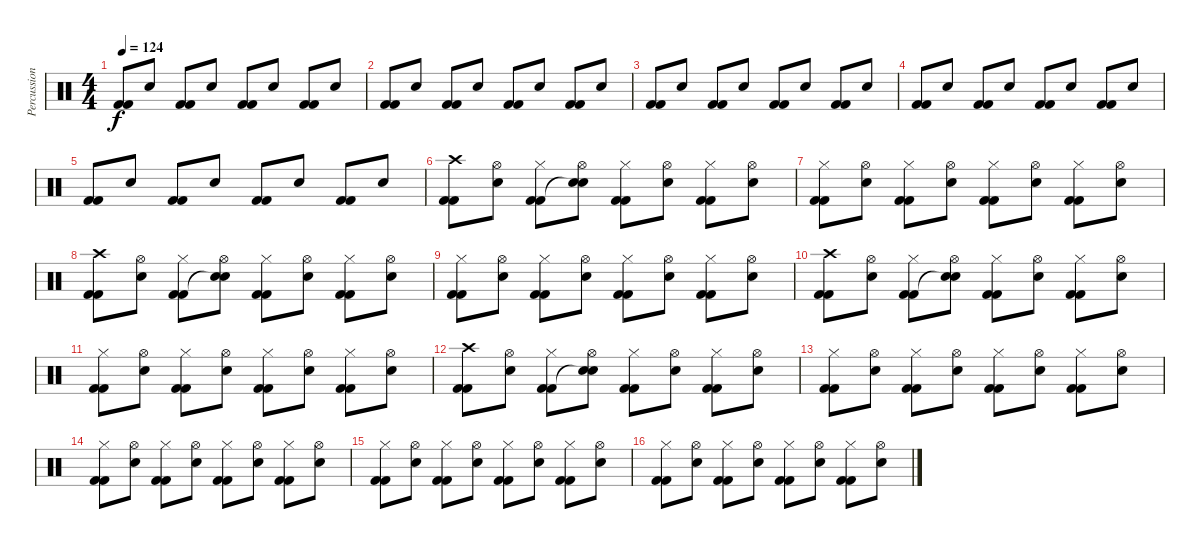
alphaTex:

\track ("Percussions" "Percussion") {instrument percussion}
\staff {score}
\articulation defaults
\ts (4 4)
\tempo 124
\clef neutral
\ks c
("Kick (hit) 2" "Kick (hit) 2").8{dy f} "Hand Clap (hit)".8 ("Kick (hit) 2" "Kick (hit) 2").8 "Hand Clap (hit)".8 ("Kick (hit) 2" "Kick (hit) 2").8 "Hand Clap (hit)".8 ("Kick (hit) 2" "Kick (hit) 2").8 "Hand Clap (hit)".8 |
("Kick (hit) 2" "Kick (hit) 2").8 "Hand Clap (hit)".8 ("Kick (hit) 2" "Kick (hit) 2").8 "Hand Clap (hit)".8 ("Kick (hit) 2" "Kick (hit) 2").8 "Hand Clap (hit)".8 ("Kick (hit) 2" "Kick (hit) 2").8 "Hand Clap (hit)".8 |
("Kick (hit) 2" "Kick (hit) 2").8 "Hand Clap (hit)".8 ("Kick (hit) 2" "Kick (hit) 2").8 "Hand Clap (hit)".8 ("Kick (hit) 2" "Kick (hit) 2").8 "Hand Clap (hit)".8 ("Kick (hit) 2" "Kick (hit) 2").8 "Hand Clap (hit)".8 |
("Kick (hit) 2" "Kick (hit) 2").8 "Hand Clap (hit)".8 ("Kick (hit) 2" "Kick (hit) 2").8 "Hand Clap (hit)".8 ("Kick (hit) 2" "Kick (hit) 2").8 "Hand Clap (hit)".8 ("Kick (hit) 2" "Kick (hit) 2").8 "Hand Clap (hit)".8 |
("Kick (hit) 2" "Kick (hit) 2").8 "Hand Clap (hit)".8 ("Kick (hit) 2" "Kick (hit) 2").8 "Hand Clap (hit)".8 ("Kick (hit) 2" "Kick (hit) 2").8 "Hand Clap (hit)".8 ("Kick (hit) 2" "Kick (hit) 2").8 "Hand Clap (hit)".8 |
("Kick (hit) 2" "Kick (hit) 2" "Crash high (hit)").8 ("Hand Clap (hit)" "Hi-Hat (open)").8 ("Kick (hit) 2" "Kick (hit) 2" "Hi-Hat (closed)").8 ("Hand Clap (hit)" "Snare (hit)"{t} "Hi-Hat (open)").8 ("Kick (hit) 2" "Kick (hit) 2" "Hi-Hat (closed)").8 ("Hand Clap (hit)" "Hi-Hat (open)").8 ("Kick (hit) 2" "Kick (hit) 2" "Hi-Hat (closed)").8 ("Hand Clap (hit)" "Hi-Hat (open)").8 |
("Kick (hit) 2" "Kick (hit) 2" "Hi-Hat (closed)").8 ("Hand Clap (hit)" "Hi-Hat (open)").8 ("Kick (hit) 2" "Kick (hit) 2" "Hi-Hat (closed)").8 ("Hand Clap (hit)" "Hi-Hat (open)").8 ("Kick (hit) 2" "Kick (hit) 2" "Hi-Hat (closed)").8 ("Hand Clap (hit)" "Hi-Hat (open)").8 ("Kick (hit) 2" "Kick (hit) 2" "Hi-Hat (closed)").8 ("Hand Clap (hit)" "Hi-Hat (open)").8 |
("Kick (hit) 2" "Kick (hit) 2" "Crash high (hit)").8 ("Hand Clap (hit)" "Hi-Hat (open)").8 ("Kick (hit) 2" "Kick (hit) 2" "Hi-Hat (closed)").8 ("Hand Clap (hit)" "Snare (hit)"{t} "Hi-Hat (open)").8 ("Kick (hit) 2" "Kick (hit) 2" "Hi-Hat (closed)").8 ("Hand Clap (hit)" "Hi-Hat (open)").8 ("Kick (hit) 2" "Kick (hit) 2" "Hi-Hat (closed)").8 ("Hand Clap (hit)" "Hi-Hat (open)").8 |
("Kick (hit) 2" "Kick (hit) 2" "Hi-Hat (closed)").8 ("Hand Clap (hit)" "Hi-Hat (open)").8 ("Kick (hit) 2" "Kick (hit) 2" "Hi-Hat (closed)").8 ("Hand Clap (hit)" "Hi-Hat (open)").8 ("Kick (hit) 2" "Kick (hit) 2" "Hi-Hat (closed)").8 ("Hand Clap (hit)" "Hi-Hat (open)").8 ("Kick (hit) 2" "Kick (hit) 2" "Hi-Hat (closed)").8 ("Hand Clap (hit)" "Hi-Hat (open)").8 |
("Kick (hit) 2" "Kick (hit) 2" "Crash high (hit)").8 ("Hand Clap (hit)" "Hi-Hat (open)").8 ("Kick (hit) 2" "Kick (hit) 2" "Hi-Hat (closed)").8 ("Hand Clap (hit)" "Snare (hit)"{t} "Hi-Hat (open)").8 ("Kick (hit) 2" "Kick (hit) 2" "Hi-Hat (closed)").8 ("Hand Clap (hit)" "Hi-Hat (open)").8 ("Kick (hit) 2" "Kick (hit) 2" "Hi-Hat (closed)").8 ("Hand Clap (hit)" "Hi-Hat (open)").8 |
("Kick (hit) 2" "Kick (hit) 2" "Hi-Hat (closed)").8 ("Hand Clap (hit)" "Hi-Hat (open)").8 ("Kick (hit) 2" "Kick (hit) 2" "Hi-Hat (closed)").8 ("Hand Clap (hit)" "Hi-Hat (open)").8 ("Kick (hit) 2" "Kick (hit) 2" "Hi-Hat (closed)").8 ("Hand Clap (hit)" "Hi-Hat (open)").8 ("Kick (hit) 2" "Kick (hit) 2" "Hi-Hat (closed)").8 ("Hand Clap (hit)" "Hi-Hat (open)").8 |
("Kick (hit) 2" "Kick (hit) 2" "Crash high (hit)").8 ("Hand Clap (hit)" "Hi-Hat (open)").8 ("Kick (hit) 2" "Kick (hit) 2" "Hi-Hat (closed)").8 ("Hand Clap (hit)" "Snare (hit)"{t} "Hi-Hat (open)").8 ("Kick (hit) 2" "Kick (hit) 2" "Hi-Hat (closed)").8 ("Hand Clap (hit)" "Hi-Hat (open)").8 ("Kick (hit) 2" "Kick (hit) 2" "Hi-Hat (closed)").8 ("Hand Clap (hit)" "Hi-Hat (open)").8 |
("Kick (hit) 2" "Kick (hit) 2" "Hi-Hat (closed)").8 ("Hand Clap (hit)" "Hi-Hat (open)").8 ("Kick (hit) 2" "Kick (hit) 2" "Hi-Hat (closed)").8 ("Hand Clap (hit)" "Hi-Hat (open)").8 ("Kick (hit) 2" "Kick (hit) 2" "Hi-Hat (closed)").8 ("Hand Clap (hit)" "Hi-Hat (open)").8 ("Kick (hit) 2" "Kick (hit) 2" "Hi-Hat (closed)").8 ("Hand Clap (hit)" "Hi-Hat (open)").8 |
("Kick (hit) 2" "Kick (hit) 2" "Hi-Hat (closed)").8 ("Hand Clap (hit)" "Hi-Hat (open)").8 ("Kick (hit) 2" "Kick (hit) 2" "Hi-Hat (closed)").8 ("Hand Clap (hit)" "Hi-Hat (open)").8 ("Kick (hit) 2" "Kick (hit) 2" "Hi-Hat (closed)").8 ("Hand Clap (hit)" "Hi-Hat (open)").8 ("Kick (hit) 2" "Kick (hit) 2" "Hi-Hat (closed)").8 ("Hand Clap (hit)" "Hi-Hat (open)").8 |
("Kick (hit) 2" "Kick (hit) 2" "Hi-Hat (closed)").8 ("Hand Clap (hit)" "Hi-Hat (open)").8 ("Kick (hit) 2" "Kick (hit) 2" "Hi-Hat (closed)").8 ("Hand Clap (hit)" "Hi-Hat (open)").8 ("Kick (hit) 2" "Kick (hit) 2" "Hi-Hat (closed)").8 ("Hand Clap (hit)" "Hi-Hat (open)").8 ("Kick (hit) 2" "Kick (hit) 2" "Hi-Hat (closed)").8 ("Hand Clap (hit)" "Hi-Hat (open)").8 |
("Kick (hit) 2" "Kick (hit) 2" "Hi-Hat (closed)").8 ("Hand Clap (hit)" "Hi-Hat (open)").8 ("Kick (hit) 2" "Kick (hit) 2" "Hi-Hat (closed)").8 ("Hand Clap (hit)" "Hi-Hat (open)").8 ("Kick (hit) 2" "Kick (hit) 2" "Hi-Hat (closed)").8 ("Hand Clap (hit)" "Hi-Hat (open)").8 ("Kick (hit) 2" "Kick (hit) 2" "Hi-Hat (closed)").8 ("Hand Clap (hit)" "Hi-Hat (open)").8
